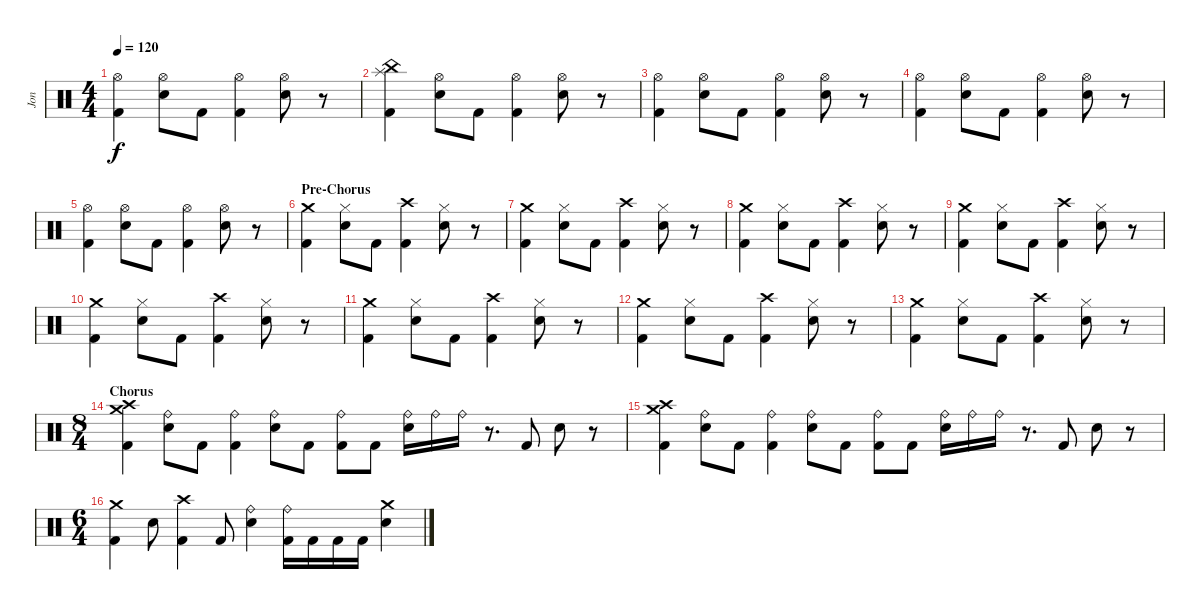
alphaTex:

\track ("Jon" "Jon") {instrument percussion}
\staff {score}
\articulation defaults
\ts (4 4)
\tempo 120
\clef neutral
\ks c
("Hi-Hat (open)" "Kick (hit) 2").4{dy f} ("Snare (hit) 2" "Hi-Hat (open)").8 "Kick (hit) 2".8 ("Hi-Hat (open)" "Kick (hit) 2").4 ("Snare (hit) 2" "Hi-Hat (open)").8 r.8 |
("China (hit)" "Splash (hit)" "Kick (hit) 2").4 ("Snare (hit) 2" "Hi-Hat (open)").8 "Kick (hit) 2".8 ("Hi-Hat (open)" "Kick (hit) 2").4 ("Snare (hit) 2" "Hi-Hat (open)").8 r.8 |
("Hi-Hat (open)" "Kick (hit) 2").4 ("Snare (hit) 2" "Hi-Hat (open)").8 "Kick (hit) 2".8 ("Hi-Hat (open)" "Kick (hit) 2").4 ("Snare (hit) 2" "Hi-Hat (open)").8 r.8 |
("Hi-Hat (open)" "Kick (hit) 2").4 ("Snare (hit) 2" "Hi-Hat (open)").8 "Kick (hit) 2".8 ("Hi-Hat (open)" "Kick (hit) 2").4 ("Snare (hit) 2" "Hi-Hat (open)").8 r.8 |
("Hi-Hat (open)" "Kick (hit) 2").4 ("Snare (hit) 2" "Hi-Hat (open)").8 "Kick (hit) 2".8 ("Hi-Hat (open)" "Kick (hit) 2").4 ("Snare (hit) 2" "Hi-Hat (open)").8 r.8 |
\section ("" "Pre-Chorus")
("Crash medium (hit)" "Kick (hit) 2").4 ("Snare (hit) 2" "Hi-Hat (closed)").8 "Kick (hit) 2".8 ("Crash high (hit)" "Kick (hit) 2").4 ("Snare (hit) 2" "Hi-Hat (closed)").8 r.8 |
("Crash medium (hit)" "Kick (hit) 2").4 ("Snare (hit) 2" "Hi-Hat (closed)").8 "Kick (hit) 2".8 ("Crash high (hit)" "Kick (hit) 2").4 ("Snare (hit) 2" "Hi-Hat (closed)").8 r.8 |
("Crash medium (hit)" "Kick (hit) 2").4 ("Snare (hit) 2" "Hi-Hat (closed)").8 "Kick (hit) 2".8 ("Crash high (hit)" "Kick (hit) 2").4 ("Snare (hit) 2" "Hi-Hat (closed)").8 r.8 |
("Crash medium (hit)" "Kick (hit) 2").4 ("Snare (hit) 2" "Hi-Hat (closed)").8 "Kick (hit) 2".8 ("Crash high (hit)" "Kick (hit) 2").4 ("Snare (hit) 2" "Hi-Hat (closed)").8 r.8 |
("Crash medium (hit)" "Kick (hit) 2").4 ("Snare (hit) 2" "Hi-Hat (closed)").8 "Kick (hit) 2".8 ("Crash high (hit)" "Kick (hit) 2").4 ("Snare (hit) 2" "Hi-Hat (closed)").8 r.8 |
("Crash medium (hit)" "Kick (hit) 2").4 ("Snare (hit) 2" "Hi-Hat (closed)").8 "Kick (hit) 2".8 ("Crash high (hit)" "Kick (hit) 2").4 ("Snare (hit) 2" "Hi-Hat (closed)").8 r.8 |
("Crash medium (hit)" "Kick (hit) 2").4 ("Snare (hit) 2" "Hi-Hat (closed)").8 "Kick (hit) 2".8 ("Crash high (hit)" "Kick (hit) 2").4 ("Snare (hit) 2" "Hi-Hat (closed)").8 r.8 |
("Crash medium (hit)" "Kick (hit) 2").4 ("Snare (hit) 2" "Hi-Hat (closed)").8 "Kick (hit) 2".8 ("Crash high (hit)" "Kick (hit) 2").4 ("Snare (hit) 2" "Hi-Hat (closed)").8 r.8 |
\ts (8 4)
\section ("" "Chorus")
("Crash medium (hit)" "Crash high (hit)" "Kick (hit) 2").4 ("Ride (bell)" "Snare (hit) 2").8 "Kick (hit) 2".8 ("Ride (bell)" "Kick (hit) 2").4 ("Ride (bell)" "Snare (hit) 2").8 "Kick (hit) 2".8 ("Ride (bell)" "Kick (hit) 2").8 "Kick (hit) 2".8 ("Ride (bell)" "Snare (hit) 2").16 "Ride (bell)".16 "Ride (bell)".16 r.8{d} "Kick (hit) 2".8 "Snare (hit) 2".8 r.8 |
("Crash medium (hit)" "Crash high (hit)" "Kick (hit) 2").4 ("Ride (bell)" "Snare (hit) 2").8 "Kick (hit) 2".8 ("Ride (bell)" "Kick (hit) 2").4 ("Ride (bell)" "Snare (hit) 2").8 "Kick (hit) 2".8 ("Ride (bell)" "Kick (hit) 2").8 "Kick (hit) 2".8 ("Ride (bell)" "Snare (hit) 2").16 "Ride (bell)".16 "Ride (bell)".16 r.8{d} "Kick (hit) 2".8 "Snare (hit) 2".8 r.8 |
\ts (6 4)
("Crash medium (hit)" "Kick (hit) 2").4 "Snare (hit) 2".8 ("Crash high (hit)" "Kick (hit) 2").4 "Kick (hit) 2".8 ("Ride (bell)" "Snare (hit) 2").4 ("Ride (bell)" "Kick (hit) 2").16 "Kick (hit) 2".16 "Kick (hit) 2".16 "Kick (hit) 2".16 ("Crash medium (hit)" "Snare (hit) 2").4
